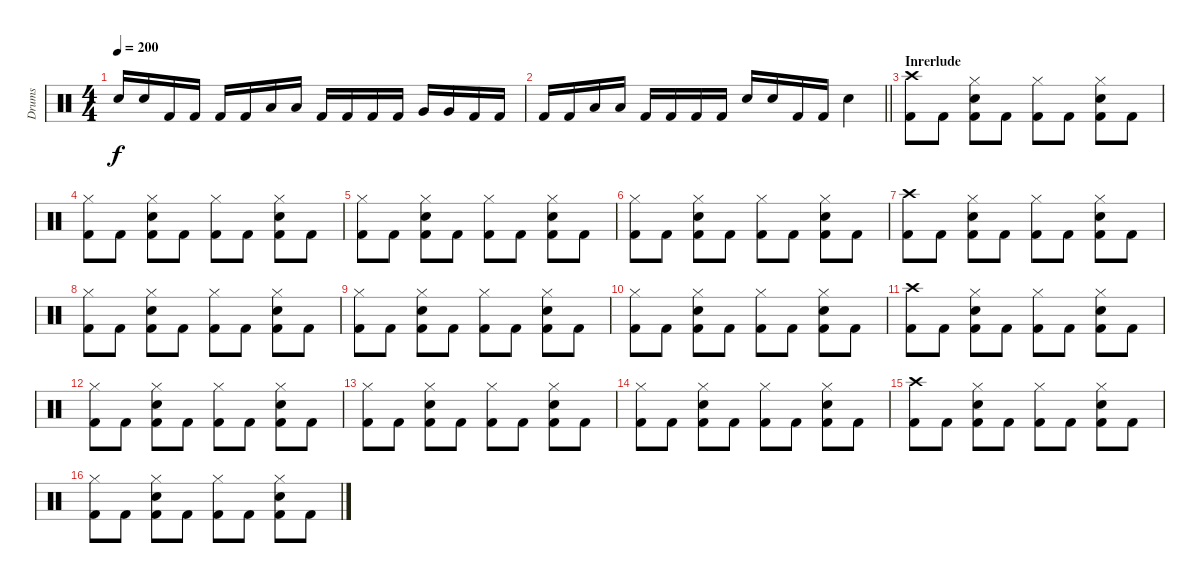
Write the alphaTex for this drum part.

\track ("Drums" "Drums") {instrument percussion}
\staff {score}
\articulation defaults
\ts (4 4)
\tempo 200
\clef neutral
\ks c "Electric Snare (hit)".16{dy f} "Electric Snare (hit)".16 "Kick (hit) 2".16 "Kick (hit) 2".16 "Kick (hit) 2".16 "Kick (hit) 2".16 "Low Tom (hit)".16 "Low Tom (hit)".16 "Kick (hit) 2".16 "Kick (hit) 2".16 "Kick (hit) 2".16 "Kick (hit) 2".16 "Very Low Tom (hit)".16 "Very Low Tom (hit)".16 "Kick (hit) 2".16 "Kick (hit) 2".16
|
\barLineRight lightlight "Kick (hit) 2".16 "Kick (hit) 2".16 "Low Floor Tom (hit)".16 "Low Floor Tom (hit)".16 "Kick (hit) 2".16 "Kick (hit) 2".16 "Kick (hit) 2".16 "Kick (hit) 2".16 "Electric Snare (hit)".16 "Electric Snare (hit)".16 "Kick (hit) 2".16 "Kick (hit) 2".16 "Electric Snare (hit)".4
|
\section ("" "Inrerlude")
("Kick (hit) 2" "Crash high (hit)").8 "Kick (hit) 2".8 ("Kick (hit) 2" "Hi-Hat (closed)" "Electric Snare (hit)").8 "Kick (hit) 2".8 ("Kick (hit) 2" "Hi-Hat (closed)").8 "Kick (hit) 2".8 ("Kick (hit) 2" "Hi-Hat (closed)" "Electric Snare (hit)").8 "Kick (hit) 2".8 |
("Kick (hit) 2" "Hi-Hat (closed)").8 "Kick (hit) 2".8 ("Kick (hit) 2" "Hi-Hat (closed)" "Electric Snare (hit)").8 "Kick (hit) 2".8 ("Kick (hit) 2" "Hi-Hat (closed)").8 "Kick (hit) 2".8 ("Kick (hit) 2" "Hi-Hat (closed)" "Electric Snare (hit)").8 "Kick (hit) 2".8 |
("Kick (hit) 2" "Hi-Hat (closed)").8 "Kick (hit) 2".8 ("Kick (hit) 2" "Hi-Hat (closed)" "Electric Snare (hit)").8 "Kick (hit) 2".8 ("Kick (hit) 2" "Hi-Hat (closed)").8 "Kick (hit) 2".8 ("Kick (hit) 2" "Hi-Hat (closed)" "Electric Snare (hit)").8 "Kick (hit) 2".8 |
("Kick (hit) 2" "Hi-Hat (closed)").8 "Kick (hit) 2".8 ("Kick (hit) 2" "Hi-Hat (closed)" "Electric Snare (hit)").8 "Kick (hit) 2".8 ("Kick (hit) 2" "Hi-Hat (closed)").8 "Kick (hit) 2".8 ("Kick (hit) 2" "Hi-Hat (closed)" "Electric Snare (hit)").8 "Kick (hit) 2".8 |
("Kick (hit) 2" "Crash high (hit)").8 "Kick (hit) 2".8 ("Kick (hit) 2" "Hi-Hat (closed)" "Electric Snare (hit)").8 "Kick (hit) 2".8 ("Kick (hit) 2" "Hi-Hat (closed)").8 "Kick (hit) 2".8 ("Kick (hit) 2" "Hi-Hat (closed)" "Electric Snare (hit)").8 "Kick (hit) 2".8 |
("Kick (hit) 2" "Hi-Hat (closed)").8 "Kick (hit) 2".8 ("Kick (hit) 2" "Hi-Hat (closed)" "Electric Snare (hit)").8 "Kick (hit) 2".8 ("Kick (hit) 2" "Hi-Hat (closed)").8 "Kick (hit) 2".8 ("Kick (hit) 2" "Hi-Hat (closed)" "Electric Snare (hit)").8 "Kick (hit) 2".8 |
("Kick (hit) 2" "Hi-Hat (closed)").8 "Kick (hit) 2".8 ("Kick (hit) 2" "Hi-Hat (closed)" "Electric Snare (hit)").8 "Kick (hit) 2".8 ("Kick (hit) 2" "Hi-Hat (closed)").8 "Kick (hit) 2".8 ("Kick (hit) 2" "Hi-Hat (closed)" "Electric Snare (hit)").8 "Kick (hit) 2".8 |
("Kick (hit) 2" "Hi-Hat (closed)").8 "Kick (hit) 2".8 ("Kick (hit) 2" "Hi-Hat (closed)" "Electric Snare (hit)").8 "Kick (hit) 2".8 ("Kick (hit) 2" "Hi-Hat (closed)").8 "Kick (hit) 2".8 ("Kick (hit) 2" "Hi-Hat (closed)" "Electric Snare (hit)").8 "Kick (hit) 2".8 |
("Kick (hit) 2" "Crash high (hit)").8 "Kick (hit) 2".8 ("Kick (hit) 2" "Hi-Hat (closed)" "Electric Snare (hit)").8 "Kick (hit) 2".8 ("Kick (hit) 2" "Hi-Hat (closed)").8 "Kick (hit) 2".8 ("Kick (hit) 2" "Hi-Hat (closed)" "Electric Snare (hit)").8 "Kick (hit) 2".8 |
("Kick (hit) 2" "Hi-Hat (closed)").8 "Kick (hit) 2".8 ("Kick (hit) 2" "Hi-Hat (closed)" "Electric Snare (hit)").8 "Kick (hit) 2".8 ("Kick (hit) 2" "Hi-Hat (closed)").8 "Kick (hit) 2".8 ("Kick (hit) 2" "Hi-Hat (closed)" "Electric Snare (hit)").8 "Kick (hit) 2".8 |
("Kick (hit) 2" "Hi-Hat (closed)").8 "Kick (hit) 2".8 ("Kick (hit) 2" "Hi-Hat (closed)" "Electric Snare (hit)").8 "Kick (hit) 2".8 ("Kick (hit) 2" "Hi-Hat (closed)").8 "Kick (hit) 2".8 ("Kick (hit) 2" "Hi-Hat (closed)" "Electric Snare (hit)").8 "Kick (hit) 2".8 |
("Kick (hit) 2" "Hi-Hat (closed)").8 "Kick (hit) 2".8 ("Kick (hit) 2" "Hi-Hat (closed)" "Electric Snare (hit)").8 "Kick (hit) 2".8 ("Kick (hit) 2" "Hi-Hat (closed)").8 "Kick (hit) 2".8 ("Kick (hit) 2" "Hi-Hat (closed)" "Electric Snare (hit)").8 "Kick (hit) 2".8 |
("Kick (hit) 2" "Crash high (hit)").8 "Kick (hit) 2".8 ("Kick (hit) 2" "Hi-Hat (closed)" "Electric Snare (hit)").8 "Kick (hit) 2".8 ("Kick (hit) 2" "Hi-Hat (closed)").8 "Kick (hit) 2".8 ("Kick (hit) 2" "Hi-Hat (closed)" "Electric Snare (hit)").8 "Kick (hit) 2".8 |
("Kick (hit) 2" "Hi-Hat (closed)").8 "Kick (hit) 2".8 ("Kick (hit) 2" "Hi-Hat (closed)" "Electric Snare (hit)").8 "Kick (hit) 2".8 ("Kick (hit) 2" "Hi-Hat (closed)").8 "Kick (hit) 2".8 ("Kick (hit) 2" "Hi-Hat (closed)" "Electric Snare (hit)").8 "Kick (hit) 2".8
